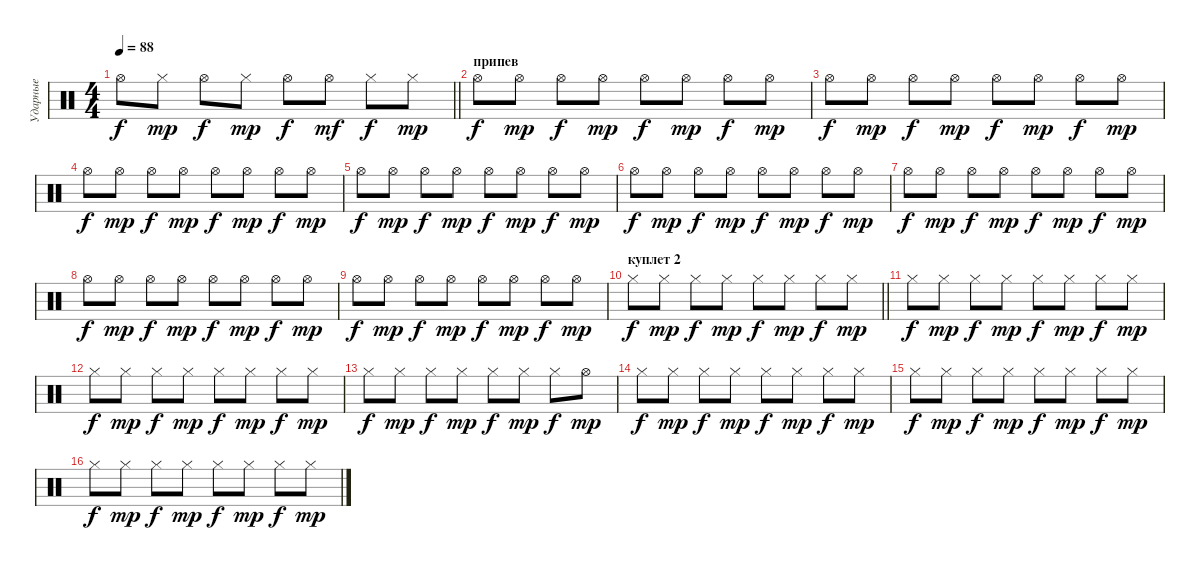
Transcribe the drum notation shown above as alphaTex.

\track ("Ударные" "Ударные") {instrument percussion}
\staff {score}
\articulation defaults
\ts (4 4)
\tempo 88
\clef neutral
\barLineRight lightlight
\ks c "Hi-Hat (open)".8{dy f} "Hi-Hat (closed)".8{dy mp} "Hi-Hat (open)".8{dy f} "Hi-Hat (closed)".8{dy mp} "Hi-Hat (open)".8{dy f} "Hi-Hat (open)".8{dy mf} "Hi-Hat (closed)".8{dy f} "Hi-Hat (closed)".8{dy mp}
|
\section ("" "припев")
"Hi-Hat (open)".8{dy f} "Hi-Hat (open)".8{dy mp} "Hi-Hat (open)".8{dy f} "Hi-Hat (open)".8{dy mp} "Hi-Hat (open)".8{dy f} "Hi-Hat (open)".8{dy mp} "Hi-Hat (open)".8{dy f} "Hi-Hat (open)".8{dy mp} |
"Hi-Hat (open)".8{dy f} "Hi-Hat (open)".8{dy mp} "Hi-Hat (open)".8{dy f} "Hi-Hat (open)".8{dy mp} "Hi-Hat (open)".8{dy f} "Hi-Hat (open)".8{dy mp} "Hi-Hat (open)".8{dy f} "Hi-Hat (open)".8{dy mp} |
"Hi-Hat (open)".8{dy f} "Hi-Hat (open)".8{dy mp} "Hi-Hat (open)".8{dy f} "Hi-Hat (open)".8{dy mp} "Hi-Hat (open)".8{dy f} "Hi-Hat (open)".8{dy mp} "Hi-Hat (open)".8{dy f} "Hi-Hat (open)".8{dy mp} |
"Hi-Hat (open)".8{dy f} "Hi-Hat (open)".8{dy mp} "Hi-Hat (open)".8{dy f} "Hi-Hat (open)".8{dy mp} "Hi-Hat (open)".8{dy f} "Hi-Hat (open)".8{dy mp} "Hi-Hat (open)".8{dy f} "Hi-Hat (open)".8{dy mp} |
"Hi-Hat (open)".8{dy f} "Hi-Hat (open)".8{dy mp} "Hi-Hat (open)".8{dy f} "Hi-Hat (open)".8{dy mp} "Hi-Hat (open)".8{dy f} "Hi-Hat (open)".8{dy mp} "Hi-Hat (open)".8{dy f} "Hi-Hat (open)".8{dy mp} |
"Hi-Hat (open)".8{dy f} "Hi-Hat (open)".8{dy mp} "Hi-Hat (open)".8{dy f} "Hi-Hat (open)".8{dy mp} "Hi-Hat (open)".8{dy f} "Hi-Hat (open)".8{dy mp} "Hi-Hat (open)".8{dy f} "Hi-Hat (open)".8{dy mp} |
"Hi-Hat (open)".8{dy f} "Hi-Hat (open)".8{dy mp} "Hi-Hat (open)".8{dy f} "Hi-Hat (open)".8{dy mp} "Hi-Hat (open)".8{dy f} "Hi-Hat (open)".8{dy mp} "Hi-Hat (open)".8{dy f} "Hi-Hat (open)".8{dy mp} |
"Hi-Hat (open)".8{dy f} "Hi-Hat (open)".8{dy mp} "Hi-Hat (open)".8{dy f} "Hi-Hat (open)".8{dy mp} "Hi-Hat (open)".8{dy f} "Hi-Hat (open)".8{dy mp} "Hi-Hat (open)".8{dy f} "Hi-Hat (open)".8{dy mp} |
\section ("" "куплет 2")
\barLineRight lightlight "Hi-Hat (closed)".8{dy f} "Hi-Hat (closed)".8{dy mp} "Hi-Hat (closed)".8{dy f} "Hi-Hat (closed)".8{dy mp} "Hi-Hat (closed)".8{dy f} "Hi-Hat (closed)".8{dy mp} "Hi-Hat (closed)".8{dy f} "Hi-Hat (closed)".8{dy mp}
|
"Hi-Hat (closed)".8{dy f} "Hi-Hat (closed)".8{dy mp} "Hi-Hat (closed)".8{dy f} "Hi-Hat (closed)".8{dy mp} "Hi-Hat (closed)".8{dy f} "Hi-Hat (closed)".8{dy mp} "Hi-Hat (closed)".8{dy f} "Hi-Hat (closed)".8{dy mp} |
"Hi-Hat (closed)".8{dy f} "Hi-Hat (closed)".8{dy mp} "Hi-Hat (closed)".8{dy f} "Hi-Hat (closed)".8{dy mp} "Hi-Hat (closed)".8{dy f} "Hi-Hat (closed)".8{dy mp} "Hi-Hat (closed)".8{dy f} "Hi-Hat (closed)".8{dy mp} |
"Hi-Hat (closed)".8{dy f} "Hi-Hat (closed)".8{dy mp} "Hi-Hat (closed)".8{dy f} "Hi-Hat (closed)".8{dy mp} "Hi-Hat (closed)".8{dy f} "Hi-Hat (closed)".8{dy mp} "Hi-Hat (closed)".8{dy f} "Hi-Hat (open)".8{dy mp} |
"Hi-Hat (closed)".8{dy f} "Hi-Hat (closed)".8{dy mp} "Hi-Hat (closed)".8{dy f} "Hi-Hat (closed)".8{dy mp} "Hi-Hat (closed)".8{dy f} "Hi-Hat (closed)".8{dy mp} "Hi-Hat (closed)".8{dy f} "Hi-Hat (closed)".8{dy mp} |
"Hi-Hat (closed)".8{dy f} "Hi-Hat (closed)".8{dy mp} "Hi-Hat (closed)".8{dy f} "Hi-Hat (closed)".8{dy mp} "Hi-Hat (closed)".8{dy f} "Hi-Hat (closed)".8{dy mp} "Hi-Hat (closed)".8{dy f} "Hi-Hat (closed)".8{dy mp} |
"Hi-Hat (closed)".8{dy f} "Hi-Hat (closed)".8{dy mp} "Hi-Hat (closed)".8{dy f} "Hi-Hat (closed)".8{dy mp} "Hi-Hat (closed)".8{dy f} "Hi-Hat (closed)".8{dy mp} "Hi-Hat (closed)".8{dy f} "Hi-Hat (closed)".8{dy mp}
